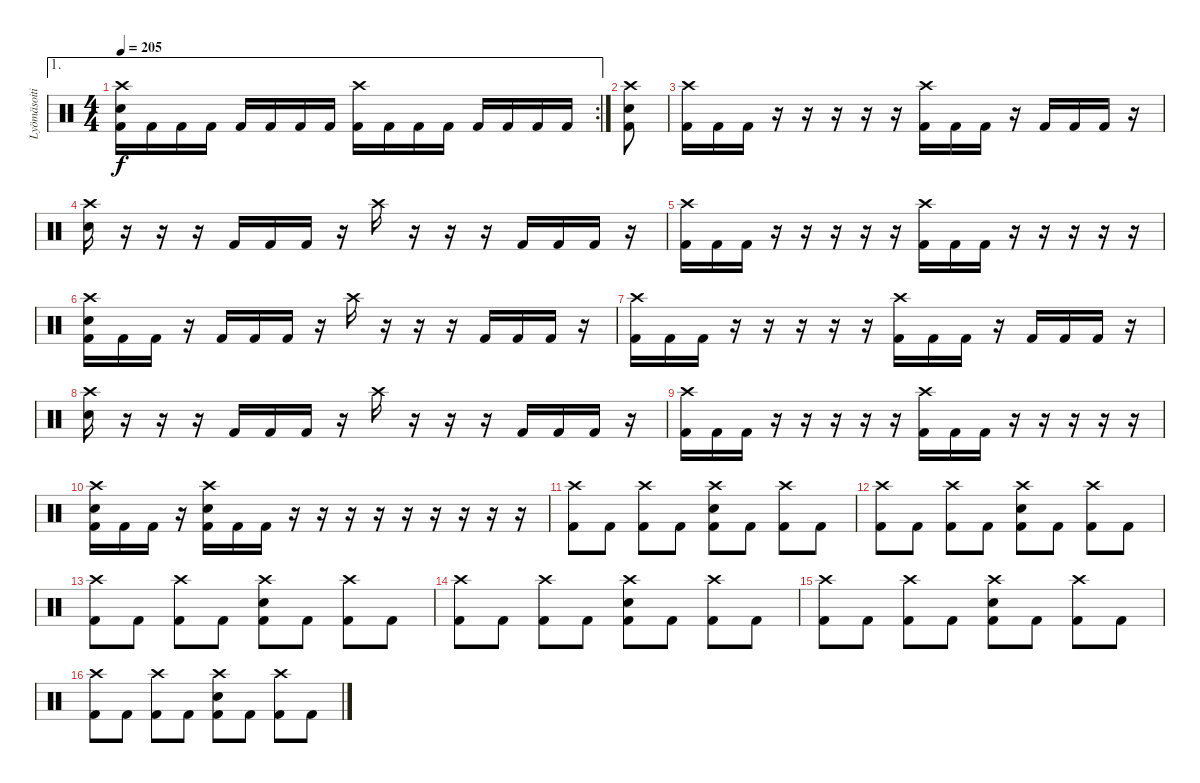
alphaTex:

\track ("Lyömäsoitin" "Lyömäsoiti") {instrument percussion}
\staff {score}
\articulation defaults
\ae 1
\rc 2
\ts (4 4)
\tempo 205
\clef neutral
\ks c
("Kick (hit) 2" "Electric Snare (hit)" "Crash high (hit)").16{dy f} "Kick (hit) 2".16 "Kick (hit) 2".16 "Kick (hit) 2".16 "Kick (hit) 2".16 "Kick (hit) 2".16 "Kick (hit) 2".16 "Kick (hit) 2".16 ("Kick (hit) 2" "Crash high (hit)").16 "Kick (hit) 2".16 "Kick (hit) 2".16 "Kick (hit) 2".16 "Kick (hit) 2".16 "Kick (hit) 2".16 "Kick (hit) 2".16 "Kick (hit) 2".16 |
("Kick (hit) 2" "Electric Snare (hit)" "Crash high (hit)").8 |
("Kick (hit) 2" "Crash high (hit)").16 "Kick (hit) 2".16 "Kick (hit) 2".16 r.16 r.16 r.16 r.16 r.16 ("Kick (hit) 2" "Crash high (hit)").16 "Kick (hit) 2".16 "Kick (hit) 2".16 r.16 "Kick (hit) 2".16 "Kick (hit) 2".16 "Kick (hit) 2".16 r.16 |
("Electric Snare (hit)" "Crash high (hit)").16 r.16 r.16 r.16 "Kick (hit) 2".16 "Kick (hit) 2".16 "Kick (hit) 2".16 r.16 "Crash high (hit)".16 r.16 r.16 r.16 "Kick (hit) 2".16 "Kick (hit) 2".16 "Kick (hit) 2".16 r.16 |
("Kick (hit) 2" "Crash high (hit)").16 "Kick (hit) 2".16 "Kick (hit) 2".16 r.16 r.16 r.16 r.16 r.16 ("Kick (hit) 2" "Crash high (hit)").16 "Kick (hit) 2".16 "Kick (hit) 2".16 r.16 r.16 r.16 r.16 r.16 |
("Kick (hit) 2" "Electric Snare (hit)" "Crash high (hit)").16 "Kick (hit) 2".16 "Kick (hit) 2".16 r.16 "Kick (hit) 2".16 "Kick (hit) 2".16 "Kick (hit) 2".16 r.16 "Crash high (hit)".16 r.16 r.16 r.16 "Kick (hit) 2".16 "Kick (hit) 2".16 "Kick (hit) 2".16 r.16 |
("Kick (hit) 2" "Crash high (hit)").16 "Kick (hit) 2".16 "Kick (hit) 2".16 r.16 r.16 r.16 r.16 r.16 ("Kick (hit) 2" "Crash high (hit)").16 "Kick (hit) 2".16 "Kick (hit) 2".16 r.16 "Kick (hit) 2".16 "Kick (hit) 2".16 "Kick (hit) 2".16 r.16 |
("Electric Snare (hit)" "Crash high (hit)").16 r.16 r.16 r.16 "Kick (hit) 2".16 "Kick (hit) 2".16 "Kick (hit) 2".16 r.16 "Crash high (hit)".16 r.16 r.16 r.16 "Kick (hit) 2".16 "Kick (hit) 2".16 "Kick (hit) 2".16 r.16 |
("Kick (hit) 2" "Crash high (hit)").16 "Kick (hit) 2".16 "Kick (hit) 2".16 r.16 r.16 r.16 r.16 r.16 ("Kick (hit) 2" "Crash high (hit)").16 "Kick (hit) 2".16 "Kick (hit) 2".16 r.16 r.16 r.16 r.16 r.16 |
("Kick (hit) 2" "Electric Snare (hit)" "Crash high (hit)").16 "Kick (hit) 2".16 "Kick (hit) 2".16 r.16 ("Kick (hit) 2" "Electric Snare (hit)" "Crash high (hit)").16 "Kick (hit) 2".16 "Kick (hit) 2".16 r.16 r.16 r.16 r.16 r.16 r.16 r.16 r.16 r.16 |
("Kick (hit) 2" "Crash high (hit)").8 "Kick (hit) 2".8 ("Kick (hit) 2" "Crash high (hit)").8 "Kick (hit) 2".8 ("Kick (hit) 2" "Electric Snare (hit)" "Crash high (hit)").8 "Kick (hit) 2".8 ("Kick (hit) 2" "Crash high (hit)").8 "Kick (hit) 2".8 |
("Kick (hit) 2" "Crash high (hit)").8 "Kick (hit) 2".8 ("Kick (hit) 2" "Crash high (hit)").8 "Kick (hit) 2".8 ("Kick (hit) 2" "Electric Snare (hit)" "Crash high (hit)").8 "Kick (hit) 2".8 ("Kick (hit) 2" "Crash high (hit)").8 "Kick (hit) 2".8 |
("Kick (hit) 2" "Crash high (hit)").8 "Kick (hit) 2".8 ("Kick (hit) 2" "Crash high (hit)").8 "Kick (hit) 2".8 ("Kick (hit) 2" "Electric Snare (hit)" "Crash high (hit)").8 "Kick (hit) 2".8 ("Kick (hit) 2" "Crash high (hit)").8 "Kick (hit) 2".8 |
("Kick (hit) 2" "Crash high (hit)").8 "Kick (hit) 2".8 ("Kick (hit) 2" "Crash high (hit)").8 "Kick (hit) 2".8 ("Kick (hit) 2" "Electric Snare (hit)" "Crash high (hit)").8 "Kick (hit) 2".8 ("Kick (hit) 2" "Crash high (hit)").8 "Kick (hit) 2".8 |
("Kick (hit) 2" "Crash high (hit)").8 "Kick (hit) 2".8 ("Kick (hit) 2" "Crash high (hit)").8 "Kick (hit) 2".8 ("Kick (hit) 2" "Electric Snare (hit)" "Crash high (hit)").8 "Kick (hit) 2".8 ("Kick (hit) 2" "Crash high (hit)").8 "Kick (hit) 2".8 |
("Kick (hit) 2" "Crash high (hit)").8 "Kick (hit) 2".8 ("Kick (hit) 2" "Crash high (hit)").8 "Kick (hit) 2".8 ("Kick (hit) 2" "Electric Snare (hit)" "Crash high (hit)").8 "Kick (hit) 2".8 ("Kick (hit) 2" "Crash high (hit)").8 "Kick (hit) 2".8
